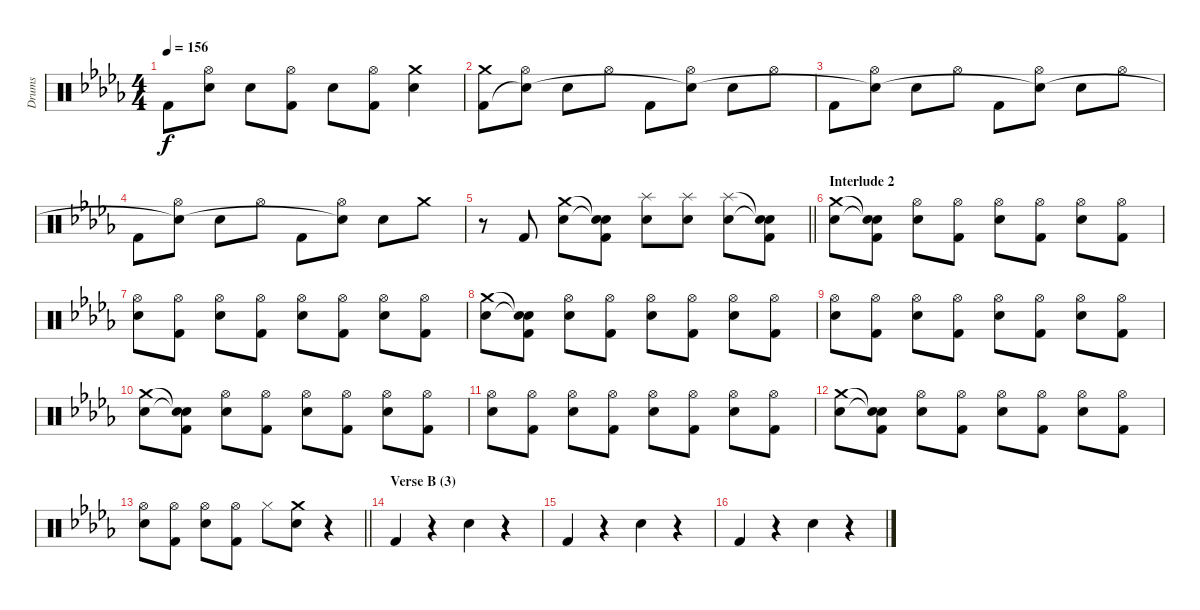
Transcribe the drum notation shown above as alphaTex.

\track ("Drums" "Drums") {instrument percussion}
\staff {score}
\articulation defaults
\ts (4 4)
\tempo 156
\clef neutral
\ks db "Kick (hit) 2".8{dy f}
("Hi-Hat (open)" "Snare (hit)"{t}).8 "Electric Snare (hit)".8 ("Hi-Hat (open)" "Kick (hit) 2").8 "Electric Snare (hit)".8 ("Hi-Hat (open)" "Kick (hit) 2").8 ("Crash medium (hit)" "Electric Snare (hit)").4 |
("Crash medium (hit)" "Kick (hit) 2").8 ("Hi-Hat (open)" "Snare (hit)"{t}).8 "Electric Snare (hit)".8 "Hi-Hat (open)".8 "Kick (hit) 2".8 ("Hi-Hat (open)" "Snare (hit)"{t}).8 "Electric Snare (hit)".8 "Hi-Hat (open)".8 |
"Kick (hit) 2".8 ("Hi-Hat (open)" "Snare (hit)"{t}).8 "Electric Snare (hit)".8 "Hi-Hat (open)".8 "Kick (hit) 2".8 ("Hi-Hat (open)" "Snare (hit)"{t}).8 "Electric Snare (hit)".8 "Hi-Hat (open)".8 |
"Kick (hit) 2".8 ("Hi-Hat (open)" "Snare (hit)"{t}).8 "Electric Snare (hit)".8 "Hi-Hat (open)".8 "Kick (hit) 2".8 ("Hi-Hat (open)" "Snare (hit)"{t}).8 "Electric Snare (hit)".8 "Crash medium (hit)".8 |
\barLineRight lightlight
r.8 "Kick (hit) 2".8 ("Crash medium (hit)" "Electric Snare (hit)").8 ("Snare (hit)"{t} "Snare (hit)"{t} "Kick (hit) 2").8 ("Splash (hit)" "Electric Snare (hit)").8 ("Splash (hit)" "Electric Snare (hit)").8 ("Splash (hit)" "Electric Snare (hit)").8 ("Snare (hit)"{t} "Snare (hit)"{t} "Kick (hit) 2").8 |
\section ("" "Interlude 2")
("Crash medium (hit)" "Electric Snare (hit)").8 ("Snare (hit)"{t} "Snare (hit)"{t} "Kick (hit) 2").8 ("Hi-Hat (open)" "Electric Snare (hit)").8 ("Hi-Hat (open)" "Kick (hit) 2").8 ("Hi-Hat (open)" "Electric Snare (hit)").8 ("Hi-Hat (open)" "Kick (hit) 2").8 ("Hi-Hat (open)" "Electric Snare (hit)").8 ("Hi-Hat (open)" "Kick (hit) 2").8 |
("Hi-Hat (open)" "Electric Snare (hit)").8 ("Hi-Hat (open)" "Kick (hit) 2").8 ("Hi-Hat (open)" "Electric Snare (hit)").8 ("Hi-Hat (open)" "Kick (hit) 2").8 ("Hi-Hat (open)" "Electric Snare (hit)").8 ("Hi-Hat (open)" "Kick (hit) 2").8 ("Hi-Hat (open)" "Electric Snare (hit)").8 ("Hi-Hat (open)" "Kick (hit) 2").8 |
("Crash medium (hit)" "Electric Snare (hit)").8 ("Snare (hit)"{t} "Snare (hit)"{t} "Kick (hit) 2").8 ("Hi-Hat (open)" "Electric Snare (hit)").8 ("Hi-Hat (open)" "Kick (hit) 2").8 ("Hi-Hat (open)" "Electric Snare (hit)").8 ("Hi-Hat (open)" "Kick (hit) 2").8 ("Hi-Hat (open)" "Electric Snare (hit)").8 ("Hi-Hat (open)" "Kick (hit) 2").8 |
("Hi-Hat (open)" "Electric Snare (hit)").8 ("Hi-Hat (open)" "Kick (hit) 2").8 ("Hi-Hat (open)" "Electric Snare (hit)").8 ("Hi-Hat (open)" "Kick (hit) 2").8 ("Hi-Hat (open)" "Electric Snare (hit)").8 ("Hi-Hat (open)" "Kick (hit) 2").8 ("Hi-Hat (open)" "Electric Snare (hit)").8 ("Hi-Hat (open)" "Kick (hit) 2").8 |
("Crash medium (hit)" "Electric Snare (hit)").8 ("Snare (hit)"{t} "Snare (hit)"{t} "Kick (hit) 2").8 ("Hi-Hat (open)" "Electric Snare (hit)").8 ("Hi-Hat (open)" "Kick (hit) 2").8 ("Hi-Hat (open)" "Electric Snare (hit)").8 ("Hi-Hat (open)" "Kick (hit) 2").8 ("Hi-Hat (open)" "Electric Snare (hit)").8 ("Hi-Hat (open)" "Kick (hit) 2").8 |
("Hi-Hat (open)" "Electric Snare (hit)").8 ("Hi-Hat (open)" "Kick (hit) 2").8 ("Hi-Hat (open)" "Electric Snare (hit)").8 ("Hi-Hat (open)" "Kick (hit) 2").8 ("Hi-Hat (open)" "Electric Snare (hit)").8 ("Hi-Hat (open)" "Kick (hit) 2").8 ("Hi-Hat (open)" "Electric Snare (hit)").8 ("Hi-Hat (open)" "Kick (hit) 2").8 |
("Crash medium (hit)" "Electric Snare (hit)").8 ("Snare (hit)"{t} "Snare (hit)"{t} "Kick (hit) 2").8 ("Hi-Hat (open)" "Electric Snare (hit)").8 ("Hi-Hat (open)" "Kick (hit) 2").8 ("Hi-Hat (open)" "Electric Snare (hit)").8 ("Hi-Hat (open)" "Kick (hit) 2").8 ("Hi-Hat (open)" "Electric Snare (hit)").8 ("Hi-Hat (open)" "Kick (hit) 2").8 |
\barLineRight lightlight
("Hi-Hat (open)" "Electric Snare (hit)").8 ("Hi-Hat (open)" "Kick (hit) 2").8 ("Hi-Hat (open)" "Electric Snare (hit)").8 ("Hi-Hat (open)" "Kick (hit) 2").8 "Hi-Hat (closed)".8 ("Crash medium (hit)" "Electric Snare (hit)").8 r.4 |
\section ("" "Verse B (3)")
"Kick (hit) 2".4 r.4 "Electric Snare (hit)".4 r.4 |
"Kick (hit) 2".4 r.4 "Electric Snare (hit)".4 r.4 |
"Kick (hit) 2".4 r.4 "Electric Snare (hit)".4 r.4
